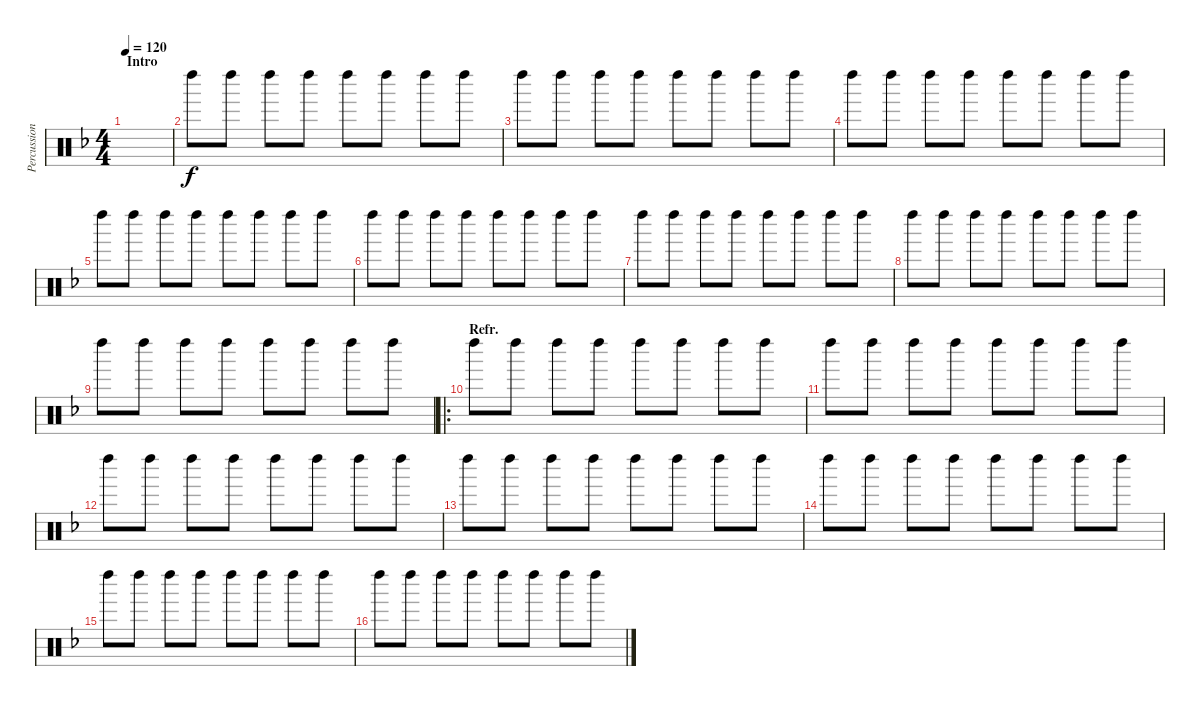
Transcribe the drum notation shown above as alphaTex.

\track ("Percussion" "Percussion") {instrument percussion}
\staff {score}
\articulation defaults
\ts (4 4)
\section ("" "Intro")
\tempo 120
\clef neutral
\ks f
|
"Left Maraca (hit)".8 "Left Maraca (hit)".8 "Left Maraca (hit)".8 "Left Maraca (hit)".8 "Left Maraca (hit)".8 "Left Maraca (hit)".8 "Left Maraca (hit)".8 "Left Maraca (hit)".8 |
"Left Maraca (hit)".8 "Left Maraca (hit)".8 "Left Maraca (hit)".8 "Left Maraca (hit)".8 "Left Maraca (hit)".8 "Left Maraca (hit)".8 "Left Maraca (hit)".8 "Left Maraca (hit)".8 |
"Left Maraca (hit)".8 "Left Maraca (hit)".8 "Left Maraca (hit)".8 "Left Maraca (hit)".8 "Left Maraca (hit)".8 "Left Maraca (hit)".8 "Left Maraca (hit)".8 "Left Maraca (hit)".8 |
"Left Maraca (hit)".8 "Left Maraca (hit)".8 "Left Maraca (hit)".8 "Left Maraca (hit)".8 "Left Maraca (hit)".8 "Left Maraca (hit)".8 "Left Maraca (hit)".8 "Left Maraca (hit)".8 |
"Left Maraca (hit)".8 "Left Maraca (hit)".8 "Left Maraca (hit)".8 "Left Maraca (hit)".8 "Left Maraca (hit)".8 "Left Maraca (hit)".8 "Left Maraca (hit)".8 "Left Maraca (hit)".8 |
"Left Maraca (hit)".8 "Left Maraca (hit)".8 "Left Maraca (hit)".8 "Left Maraca (hit)".8 "Left Maraca (hit)".8 "Left Maraca (hit)".8 "Left Maraca (hit)".8 "Left Maraca (hit)".8 |
"Left Maraca (hit)".8 "Left Maraca (hit)".8 "Left Maraca (hit)".8 "Left Maraca (hit)".8 "Left Maraca (hit)".8 "Left Maraca (hit)".8 "Left Maraca (hit)".8 "Left Maraca (hit)".8 |
"Left Maraca (hit)".8 "Left Maraca (hit)".8 "Left Maraca (hit)".8 "Left Maraca (hit)".8 "Left Maraca (hit)".8 "Left Maraca (hit)".8 "Left Maraca (hit)".8 "Left Maraca (hit)".8 |
\ro
\section ("" "Refr.")
"Left Maraca (hit)".8 "Left Maraca (hit)".8 "Left Maraca (hit)".8 "Left Maraca (hit)".8 "Left Maraca (hit)".8 "Left Maraca (hit)".8 "Left Maraca (hit)".8 "Left Maraca (hit)".8 |
"Left Maraca (hit)".8 "Left Maraca (hit)".8 "Left Maraca (hit)".8 "Left Maraca (hit)".8 "Left Maraca (hit)".8 "Left Maraca (hit)".8 "Left Maraca (hit)".8 "Left Maraca (hit)".8 |
"Left Maraca (hit)".8 "Left Maraca (hit)".8 "Left Maraca (hit)".8 "Left Maraca (hit)".8 "Left Maraca (hit)".8 "Left Maraca (hit)".8 "Left Maraca (hit)".8 "Left Maraca (hit)".8 |
"Left Maraca (hit)".8 "Left Maraca (hit)".8 "Left Maraca (hit)".8 "Left Maraca (hit)".8 "Left Maraca (hit)".8 "Left Maraca (hit)".8 "Left Maraca (hit)".8 "Left Maraca (hit)".8 |
"Left Maraca (hit)".8 "Left Maraca (hit)".8 "Left Maraca (hit)".8 "Left Maraca (hit)".8 "Left Maraca (hit)".8 "Left Maraca (hit)".8 "Left Maraca (hit)".8 "Left Maraca (hit)".8 |
"Left Maraca (hit)".8 "Left Maraca (hit)".8 "Left Maraca (hit)".8 "Left Maraca (hit)".8 "Left Maraca (hit)".8 "Left Maraca (hit)".8 "Left Maraca (hit)".8 "Left Maraca (hit)".8 |
"Left Maraca (hit)".8 "Left Maraca (hit)".8 "Left Maraca (hit)".8 "Left Maraca (hit)".8 "Left Maraca (hit)".8 "Left Maraca (hit)".8 "Left Maraca (hit)".8 "Left Maraca (hit)".8
